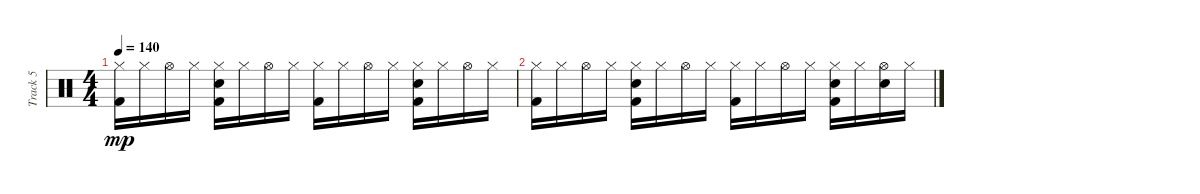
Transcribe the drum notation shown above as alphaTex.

\track ("Track 5" "Track 5") {instrument percussion}
\staff {score}
\articulation defaults
\ts (4 4)
\tempo 140
\clef neutral
\ks c
("Hi-Hat (closed)" "Kick (hit) 2").16{dy mp} "Hi-Hat (closed)".16 "Hi-Hat (open)".16 "Hi-Hat (closed)".16 ("Hi-Hat (closed)" "Electric Snare (hit)" "Kick (hit) 2").16 "Hi-Hat (closed)".16 "Hi-Hat (open)".16 "Hi-Hat (closed)".16 ("Hi-Hat (closed)" "Kick (hit) 2").16 "Hi-Hat (closed)".16 "Hi-Hat (open)".16 "Hi-Hat (closed)".16 ("Hi-Hat (closed)" "Electric Snare (hit)" "Kick (hit) 2").16 "Hi-Hat (closed)".16 "Hi-Hat (open)".16 "Hi-Hat (closed)".16 |
("Hi-Hat (closed)" "Kick (hit) 2").16 "Hi-Hat (closed)".16 "Hi-Hat (open)".16 "Hi-Hat (closed)".16 ("Hi-Hat (closed)" "Electric Snare (hit)" "Kick (hit) 2").16 "Hi-Hat (closed)".16 "Hi-Hat (open)".16 "Hi-Hat (closed)".16 ("Hi-Hat (closed)" "Kick (hit) 2").16 "Hi-Hat (closed)".16 "Hi-Hat (open)".16 "Hi-Hat (closed)".16 ("Hi-Hat (closed)" "Electric Snare (hit)" "Kick (hit) 2").16 "Hi-Hat (closed)".16 ("Hi-Hat (open)" "Electric Snare (hit)").16 "Hi-Hat (closed)".16
